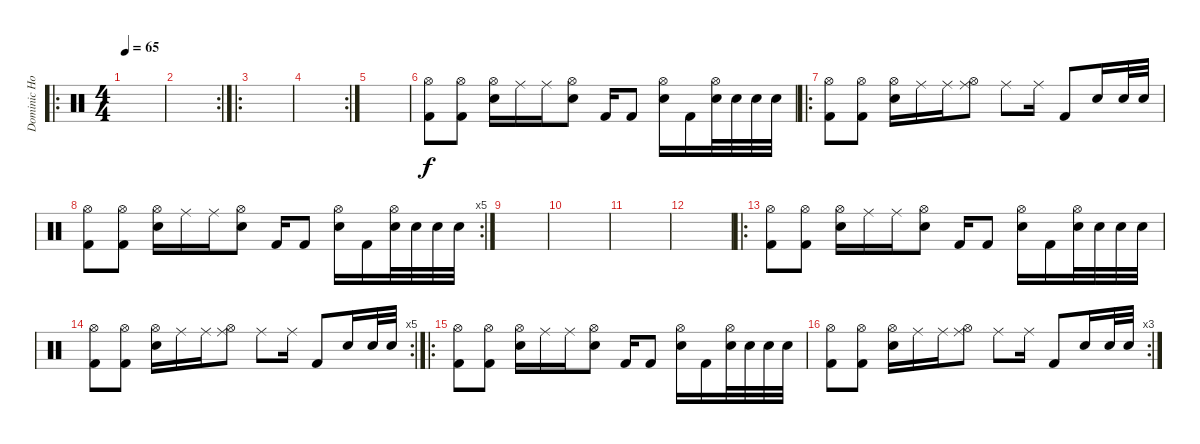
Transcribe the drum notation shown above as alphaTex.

\track ("Dominic Howard" "Dominic Ho") {instrument percussion}
\staff {score}
\articulation defaults
\ro
\ts (4 4)
\tempo 65
\clef neutral
\ks c
|
\rc 2
|
\ro
|
\rc 2
|
|
("Hi-Hat (open)" "Kick (hit) 2").8 ("Hi-Hat (open)" "Kick (hit) 2").8 ("Hi-Hat (open)" "Snare (hit) 2").16 "Ride (middle)".16 "Ride (middle)".16 ("Hi-Hat (open)" "Snare (hit) 2").8 "Kick (hit) 2".16 "Kick (hit) 2".8 ("Hi-Hat (open)" "Snare (hit) 2").16 "Kick (hit) 2".16 ("Hi-Hat (open)" "Snare (hit) 2").32 "Snare (hit) 2".32 "Snare (hit) 2".32 "Snare (hit) 2".32 |
\ro
("Hi-Hat (open)" "Kick (hit) 2").8 ("Hi-Hat (open)" "Kick (hit) 2").8 ("Hi-Hat (open)" "Snare (hit) 2").16 "Ride (middle)".16 "Ride (middle)".16 ("Hi-Hat (open)" "Ride (middle)").8 "Ride (middle)".8 "Ride (middle)".16 "Kick (hit) 2".8 "Snare (hit) 2".16 "Snare (hit) 2".32 "Snare (hit) 2".32 |
\rc 5
("Hi-Hat (open)" "Kick (hit) 2").8 ("Hi-Hat (open)" "Kick (hit) 2").8 ("Hi-Hat (open)" "Snare (hit) 2").16 "Ride (middle)".16 "Ride (middle)".16 ("Hi-Hat (open)" "Snare (hit) 2").8 "Kick (hit) 2".16 "Kick (hit) 2".8 ("Hi-Hat (open)" "Snare (hit) 2").16 "Kick (hit) 2".16 ("Hi-Hat (open)" "Snare (hit) 2").32 "Snare (hit) 2".32 "Snare (hit) 2".32 "Snare (hit) 2".32 |
|
|
|
|
\ro
("Hi-Hat (open)" "Kick (hit) 2").8 ("Hi-Hat (open)" "Kick (hit) 2").8 ("Hi-Hat (open)" "Snare (hit) 2").16 "Ride (middle)".16 "Ride (middle)".16 ("Hi-Hat (open)" "Snare (hit) 2").8 "Kick (hit) 2".16 "Kick (hit) 2".8 ("Hi-Hat (open)" "Snare (hit) 2").16 "Kick (hit) 2".16 ("Hi-Hat (open)" "Snare (hit) 2").32 "Snare (hit) 2".32 "Snare (hit) 2".32 "Snare (hit) 2".32 |
\rc 5
("Hi-Hat (open)" "Kick (hit) 2").8 ("Hi-Hat (open)" "Kick (hit) 2").8 ("Hi-Hat (open)" "Snare (hit) 2").16 "Ride (middle)".16 "Ride (middle)".16 ("Hi-Hat (open)" "Ride (middle)").8 "Ride (middle)".8 "Ride (middle)".16 "Kick (hit) 2".8 "Snare (hit) 2".16 "Snare (hit) 2".32 "Snare (hit) 2".32 |
\ro
("Hi-Hat (open)" "Kick (hit) 2").8 ("Hi-Hat (open)" "Kick (hit) 2").8 ("Hi-Hat (open)" "Snare (hit) 2").16 "Ride (middle)".16 "Ride (middle)".16 ("Hi-Hat (open)" "Snare (hit) 2").8 "Kick (hit) 2".16 "Kick (hit) 2".8 ("Hi-Hat (open)" "Snare (hit) 2").16 "Kick (hit) 2".16 ("Hi-Hat (open)" "Snare (hit) 2").32 "Snare (hit) 2".32 "Snare (hit) 2".32 "Snare (hit) 2".32 |
\rc 3
("Hi-Hat (open)" "Kick (hit) 2").8 ("Hi-Hat (open)" "Kick (hit) 2").8 ("Hi-Hat (open)" "Snare (hit) 2").16 "Ride (middle)".16 "Ride (middle)".16 ("Hi-Hat (open)" "Ride (middle)").8 "Ride (middle)".8 "Ride (middle)".16 "Kick (hit) 2".8 "Snare (hit) 2".16 "Snare (hit) 2".32 "Snare (hit) 2".32
